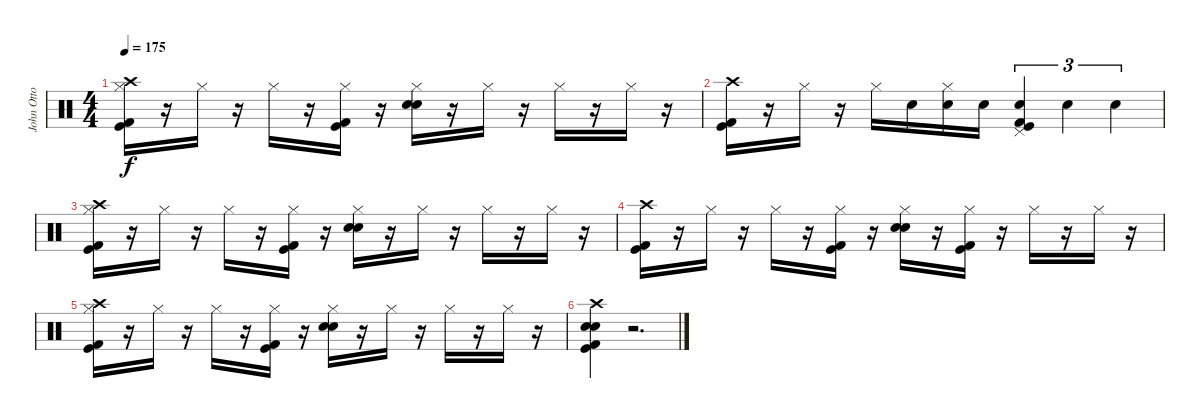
\track ("John Otto" "John Otto") {instrument percussion}
\staff {score}
\articulation defaults
\ts (4 4)
\tempo 175
\clef neutral
\ks c
("Crash high (hit)" "Hi-Hat (closed)" "Kick (hit) 2" "Kick (hit)").16{dy f} r.16 "Hi-Hat (closed)".16 r.16 "Hi-Hat (closed)".16 r.16 ("Hi-Hat (closed)" "Kick (hit) 2" "Kick (hit)").16 r.16 ("Hi-Hat (closed)" "Electric Snare (hit)" "Snare (hit) 2").16 r.16 "Hi-Hat (closed)".16 r.16 "Hi-Hat (closed)".16 r.16 "Hi-Hat (closed)".16 r.16 |
("Crash high (hit)" "Kick (hit) 2" "Kick (hit)").16 r.16 "Hi-Hat (closed)".16 r.16 "Hi-Hat (closed)".16 "Snare (hit) 2".16 ("Hi-Hat (closed)" "Snare (hit) 2").16 "Snare (hit) 2".16 ("Pedal Hi-Hat (hit)" "Electric Snare (hit)" "Kick (hit) 2" "Kick (hit)").4{tu (3 2)} "Electric Snare (hit)".4{tu (3 2)} "Electric Snare (hit)".4{tu (3 2)} |
("Crash high (hit)" "Hi-Hat (closed)" "Kick (hit) 2" "Kick (hit)").16 r.16 "Hi-Hat (closed)".16 r.16 "Hi-Hat (closed)".16 r.16 ("Hi-Hat (closed)" "Kick (hit) 2" "Kick (hit)").16 r.16 ("Hi-Hat (closed)" "Electric Snare (hit)" "Snare (hit) 2").16 r.16 "Hi-Hat (closed)".16 r.16 "Hi-Hat (closed)".16 r.16 "Hi-Hat (closed)".16 r.16 |
("Crash high (hit)" "Kick (hit) 2" "Kick (hit)").16 r.16 "Hi-Hat (closed)".16 r.16 "Hi-Hat (closed)".16 r.16 ("Hi-Hat (closed)" "Kick (hit) 2" "Kick (hit)").16 r.16 ("Hi-Hat (closed)" "Electric Snare (hit)" "Snare (hit) 2").16 r.16 ("Hi-Hat (closed)" "Kick (hit) 2" "Kick (hit)").16 r.16 "Hi-Hat (closed)".16 r.16 "Hi-Hat (closed)".16 r.16 |
("Crash high (hit)" "Hi-Hat (closed)" "Kick (hit) 2" "Kick (hit)").16 r.16 "Hi-Hat (closed)".16 r.16 "Hi-Hat (closed)".16 r.16 ("Hi-Hat (closed)" "Kick (hit) 2" "Kick (hit)").16 r.16 ("Hi-Hat (closed)" "Electric Snare (hit)" "Snare (hit) 2").16 r.16 "Hi-Hat (closed)".16 r.16 "Hi-Hat (closed)".16 r.16 "Hi-Hat (closed)".16 r.16 |
("Crash high (hit)" "Electric Snare (hit)" "Snare (hit) 2" "Kick (hit) 2" "Kick (hit)").4 r.2{d}
